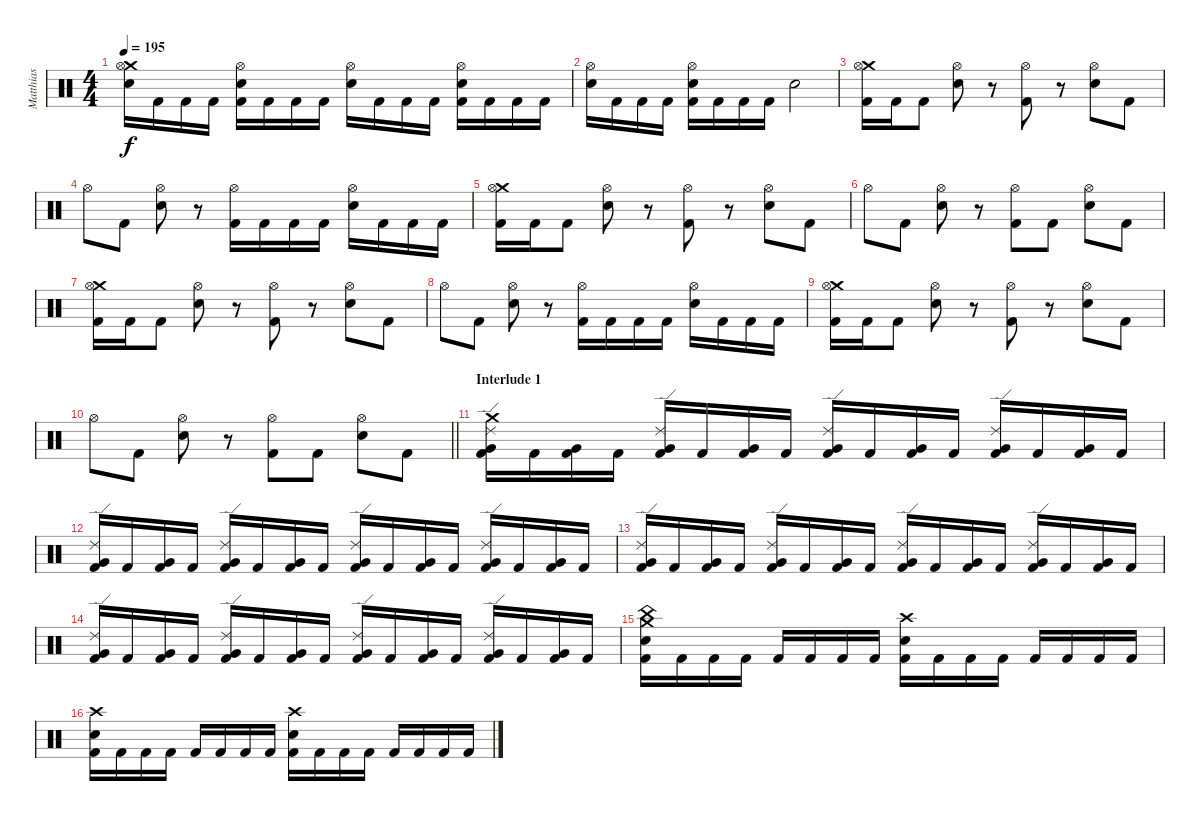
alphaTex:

\track ("Matthias" "Matthias") {instrument percussion}
\staff {score}
\articulation defaults
\ts (4 4)
\tempo 195
\clef neutral
\ks c
("Crash medium (hit)" "Hi-Hat (open)" "Electric Snare (hit)").16{dy f} "Kick (hit) 2".16 "Kick (hit) 2".16 "Kick (hit) 2".16 ("Hi-Hat (open)" "Electric Snare (hit)" "Kick (hit) 2").16 "Kick (hit) 2".16 "Kick (hit) 2".16 "Kick (hit) 2".16 ("Hi-Hat (open)" "Electric Snare (hit)").16 "Kick (hit) 2".16 "Kick (hit) 2".16 "Kick (hit) 2".16 ("Hi-Hat (open)" "Electric Snare (hit)" "Kick (hit) 2").16 "Kick (hit) 2".16 "Kick (hit) 2".16 "Kick (hit) 2".16 |
("Hi-Hat (open)" "Electric Snare (hit)").16 "Kick (hit) 2".16 "Kick (hit) 2".16 "Kick (hit) 2".16 ("Hi-Hat (open)" "Electric Snare (hit)" "Kick (hit) 2").16 "Kick (hit) 2".16 "Kick (hit) 2".16 "Kick (hit) 2".16 "Electric Snare (hit)".2 |
("Crash medium (hit)" "Hi-Hat (open)" "Kick (hit) 2").16 "Kick (hit) 2".16 "Kick (hit) 2".8 ("Hi-Hat (open)" "Electric Snare (hit)").8 r.8 ("Hi-Hat (open)" "Kick (hit) 2").8 r.8 ("Hi-Hat (open)" "Electric Snare (hit)").8 "Kick (hit) 2".8 |
"Hi-Hat (open)".8 "Kick (hit) 2".8 ("Hi-Hat (open)" "Electric Snare (hit)").8 r.8 ("Hi-Hat (open)" "Kick (hit) 2").16 "Kick (hit) 2".16 "Kick (hit) 2".16 "Kick (hit) 2".16 ("Hi-Hat (open)" "Electric Snare (hit)").16 "Kick (hit) 2".16 "Kick (hit) 2".16 "Kick (hit) 2".16 |
("Crash medium (hit)" "Hi-Hat (open)" "Kick (hit) 2").16 "Kick (hit) 2".16 "Kick (hit) 2".8 ("Hi-Hat (open)" "Electric Snare (hit)").8 r.8 ("Hi-Hat (open)" "Kick (hit) 2").8 r.8 ("Hi-Hat (open)" "Electric Snare (hit)").8 "Kick (hit) 2".8 |
"Hi-Hat (open)".8 "Kick (hit) 2".8 ("Hi-Hat (open)" "Electric Snare (hit)").8 r.8 ("Hi-Hat (open)" "Kick (hit) 2").8 "Kick (hit) 2".8 ("Hi-Hat (open)" "Electric Snare (hit)").8 "Kick (hit) 2".8 |
("Crash medium (hit)" "Hi-Hat (open)" "Kick (hit) 2").16 "Kick (hit) 2".16 "Kick (hit) 2".8 ("Hi-Hat (open)" "Electric Snare (hit)").8 r.8 ("Hi-Hat (open)" "Kick (hit) 2").8 r.8 ("Hi-Hat (open)" "Electric Snare (hit)").8 "Kick (hit) 2".8 |
"Hi-Hat (open)".8 "Kick (hit) 2".8 ("Hi-Hat (open)" "Electric Snare (hit)").8 r.8 ("Hi-Hat (open)" "Kick (hit) 2").16 "Kick (hit) 2".16 "Kick (hit) 2".16 "Kick (hit) 2".16 ("Hi-Hat (open)" "Electric Snare (hit)").16 "Kick (hit) 2".16 "Kick (hit) 2".16 "Kick (hit) 2".16 |
("Crash medium (hit)" "Hi-Hat (open)" "Kick (hit) 2").16 "Kick (hit) 2".16 "Kick (hit) 2".8 ("Hi-Hat (open)" "Electric Snare (hit)").8 r.8 ("Hi-Hat (open)" "Kick (hit) 2").8 r.8 ("Hi-Hat (open)" "Electric Snare (hit)").8 "Kick (hit) 2".8 |
\barLineRight lightlight "Hi-Hat (open)".8 "Kick (hit) 2".8
("Hi-Hat (open)" "Electric Snare (hit)").8 r.8 ("Hi-Hat (open)" "Kick (hit) 2").8 "Kick (hit) 2".8 ("Hi-Hat (open)" "Electric Snare (hit)").8 "Kick (hit) 2".8 |
\section ("" "Interlude 1")
("Crash medium (hit)" "Ride (edge) 2" "Very Low Tom (hit)" "Kick (hit) 2").16 "Kick (hit) 2".16 ("Very Low Tom (hit)" "Kick (hit) 2").16 "Kick (hit) 2".16 ("Ride (edge) 2" "Very Low Tom (hit)" "Kick (hit) 2").16 "Kick (hit) 2".16 ("Very Low Tom (hit)" "Kick (hit) 2").16 "Kick (hit) 2".16 ("Ride (edge) 2" "Very Low Tom (hit)" "Kick (hit) 2").16 "Kick (hit) 2".16 ("Very Low Tom (hit)" "Kick (hit) 2").16 "Kick (hit) 2".16 ("Ride (edge) 2" "Very Low Tom (hit)" "Kick (hit) 2").16 "Kick (hit) 2".16 ("Very Low Tom (hit)" "Kick (hit) 2").16 "Kick (hit) 2".16 |
("Ride (edge) 2" "Very Low Tom (hit)" "Kick (hit) 2").16 "Kick (hit) 2".16 ("Very Low Tom (hit)" "Kick (hit) 2").16 "Kick (hit) 2".16 ("Ride (edge) 2" "Very Low Tom (hit)" "Kick (hit) 2").16 "Kick (hit) 2".16 ("Very Low Tom (hit)" "Kick (hit) 2").16 "Kick (hit) 2".16 ("Ride (edge) 2" "Very Low Tom (hit)" "Kick (hit) 2").16 "Kick (hit) 2".16 ("Very Low Tom (hit)" "Kick (hit) 2").16 "Kick (hit) 2".16 ("Ride (edge) 2" "Very Low Tom (hit)" "Kick (hit) 2").16 "Kick (hit) 2".16 ("Very Low Tom (hit)" "Kick (hit) 2").16 "Kick (hit) 2".16 |
("Ride (edge) 2" "Very Low Tom (hit)" "Kick (hit) 2").16 "Kick (hit) 2".16 ("Very Low Tom (hit)" "Kick (hit) 2").16 "Kick (hit) 2".16 ("Ride (edge) 2" "Very Low Tom (hit)" "Kick (hit) 2").16 "Kick (hit) 2".16 ("Very Low Tom (hit)" "Kick (hit) 2").16 "Kick (hit) 2".16 ("Ride (edge) 2" "Very Low Tom (hit)" "Kick (hit) 2").16 "Kick (hit) 2".16 ("Very Low Tom (hit)" "Kick (hit) 2").16 "Kick (hit) 2".16 ("Ride (edge) 2" "Very Low Tom (hit)" "Kick (hit) 2").16 "Kick (hit) 2".16 ("Very Low Tom (hit)" "Kick (hit) 2").16 "Kick (hit) 2".16 |
("Ride (edge) 2" "Very Low Tom (hit)" "Kick (hit) 2").16 "Kick (hit) 2".16 ("Very Low Tom (hit)" "Kick (hit) 2").16 "Kick (hit) 2".16 ("Ride (edge) 2" "Very Low Tom (hit)" "Kick (hit) 2").16 "Kick (hit) 2".16 ("Very Low Tom (hit)" "Kick (hit) 2").16 "Kick (hit) 2".16 ("Ride (edge) 2" "Very Low Tom (hit)" "Kick (hit) 2").16 "Kick (hit) 2".16 ("Very Low Tom (hit)" "Kick (hit) 2").16 "Kick (hit) 2".16 ("Ride (edge) 2" "Very Low Tom (hit)" "Kick (hit) 2").16 "Kick (hit) 2".16 ("Very Low Tom (hit)" "Kick (hit) 2").16 "Kick (hit) 2".16 |
("Crash medium (hit)" "China (hit)" "Electric Snare (hit)" "Kick (hit) 2").16 "Kick (hit) 2".16 "Kick (hit) 2".16 "Kick (hit) 2".16 "Kick (hit) 2".16 "Kick (hit) 2".16 "Kick (hit) 2".16 "Kick (hit) 2".16 ("Crash high (hit)" "Electric Snare (hit)" "Kick (hit) 2").16 "Kick (hit) 2".16 "Kick (hit) 2".16 "Kick (hit) 2".16 "Kick (hit) 2".16 "Kick (hit) 2".16 "Kick (hit) 2".16 "Kick (hit) 2".16 |
("Crash high (hit)" "Electric Snare (hit)" "Kick (hit) 2").16 "Kick (hit) 2".16 "Kick (hit) 2".16 "Kick (hit) 2".16 "Kick (hit) 2".16 "Kick (hit) 2".16 "Kick (hit) 2".16 "Kick (hit) 2".16 ("Crash high (hit)" "Electric Snare (hit)" "Kick (hit) 2").16 "Kick (hit) 2".16 "Kick (hit) 2".16 "Kick (hit) 2".16 "Kick (hit) 2".16 "Kick (hit) 2".16 "Kick (hit) 2".16 "Kick (hit) 2".16
